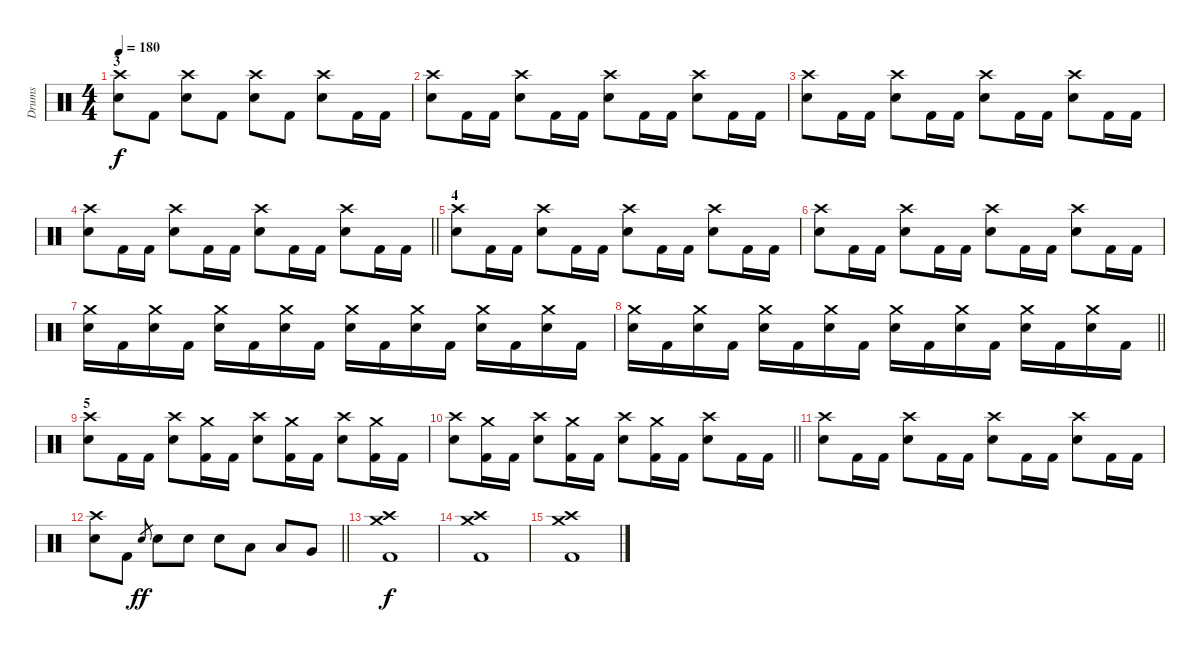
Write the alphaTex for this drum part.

\track ("Drums" "Drums") {instrument percussion}
\staff {score}
\articulation defaults
\ts (4 4)
\section ("" "3")
\tempo 180
\clef neutral
\ks c
("Crash high (hit)" "Electric Snare (hit)").8{dy f} "Kick (hit) 2".8 ("Crash high (hit)" "Electric Snare (hit)").8 "Kick (hit) 2".8 ("Crash high (hit)" "Electric Snare (hit)").8 "Kick (hit) 2".8 ("Crash high (hit)" "Electric Snare (hit)").8 "Kick (hit) 2".16 "Kick (hit) 2".16 |
("Crash high (hit)" "Electric Snare (hit)").8 "Kick (hit) 2".16 "Kick (hit) 2".16 ("Crash high (hit)" "Electric Snare (hit)").8 "Kick (hit) 2".16 "Kick (hit) 2".16 ("Crash high (hit)" "Electric Snare (hit)").8 "Kick (hit) 2".16 "Kick (hit) 2".16 ("Crash high (hit)" "Electric Snare (hit)").8 "Kick (hit) 2".16 "Kick (hit) 2".16 |
("Crash high (hit)" "Electric Snare (hit)").8 "Kick (hit) 2".16 "Kick (hit) 2".16 ("Crash high (hit)" "Electric Snare (hit)").8 "Kick (hit) 2".16 "Kick (hit) 2".16 ("Crash high (hit)" "Electric Snare (hit)").8 "Kick (hit) 2".16 "Kick (hit) 2".16 ("Crash high (hit)" "Electric Snare (hit)").8 "Kick (hit) 2".16 "Kick (hit) 2".16 |
\barLineRight lightlight
("Crash high (hit)" "Electric Snare (hit)").8 "Kick (hit) 2".16 "Kick (hit) 2".16 ("Crash high (hit)" "Electric Snare (hit)").8 "Kick (hit) 2".16 "Kick (hit) 2".16 ("Crash high (hit)" "Electric Snare (hit)").8 "Kick (hit) 2".16 "Kick (hit) 2".16 ("Crash high (hit)" "Electric Snare (hit)").8 "Kick (hit) 2".16 "Kick (hit) 2".16 |
\section ("" "4")
("Crash high (hit)" "Electric Snare (hit)").8 "Kick (hit) 2".16 "Kick (hit) 2".16 ("Crash high (hit)" "Electric Snare (hit)").8 "Kick (hit) 2".16 "Kick (hit) 2".16 ("Crash high (hit)" "Electric Snare (hit)").8 "Kick (hit) 2".16 "Kick (hit) 2".16 ("Crash high (hit)" "Electric Snare (hit)").8 "Kick (hit) 2".16 "Kick (hit) 2".16 |
("Crash high (hit)" "Electric Snare (hit)").8 "Kick (hit) 2".16 "Kick (hit) 2".16 ("Crash high (hit)" "Electric Snare (hit)").8 "Kick (hit) 2".16 "Kick (hit) 2".16 ("Crash high (hit)" "Electric Snare (hit)").8 "Kick (hit) 2".16 "Kick (hit) 2".16 ("Crash high (hit)" "Electric Snare (hit)").8 "Kick (hit) 2".16 "Kick (hit) 2".16 |
("Crash medium (hit)" "Electric Snare (hit)").16 "Kick (hit) 2".16 ("Crash medium (hit)" "Electric Snare (hit)").16 "Kick (hit) 2".16 ("Crash medium (hit)" "Electric Snare (hit)").16 "Kick (hit) 2".16 ("Crash medium (hit)" "Electric Snare (hit)").16 "Kick (hit) 2".16 ("Crash medium (hit)" "Electric Snare (hit)").16 "Kick (hit) 2".16 ("Crash medium (hit)" "Electric Snare (hit)").16 "Kick (hit) 2".16 ("Crash medium (hit)" "Electric Snare (hit)").16 "Kick (hit) 2".16 ("Crash medium (hit)" "Electric Snare (hit)").16 "Kick (hit) 2".16 |
\barLineRight lightlight
("Crash medium (hit)" "Electric Snare (hit)").16 "Kick (hit) 2".16 ("Crash medium (hit)" "Electric Snare (hit)").16 "Kick (hit) 2".16 ("Crash medium (hit)" "Electric Snare (hit)").16 "Kick (hit) 2".16 ("Crash medium (hit)" "Electric Snare (hit)").16 "Kick (hit) 2".16 ("Crash medium (hit)" "Electric Snare (hit)").16 "Kick (hit) 2".16 ("Crash medium (hit)" "Electric Snare (hit)").16 "Kick (hit) 2".16 ("Crash medium (hit)" "Electric Snare (hit)").16 "Kick (hit) 2".16 ("Crash medium (hit)" "Electric Snare (hit)").16 "Kick (hit) 2".16 |
\section ("" "5")
("Crash high (hit)" "Electric Snare (hit)").8 "Kick (hit) 2".16 "Kick (hit) 2".16 ("Crash high (hit)" "Electric Snare (hit)").8 ("Crash medium (hit)" "Kick (hit) 2").16 "Kick (hit) 2".16 ("Crash high (hit)" "Electric Snare (hit)").8 ("Crash medium (hit)" "Kick (hit) 2").16 "Kick (hit) 2".16 ("Crash high (hit)" "Electric Snare (hit)").8 ("Crash medium (hit)" "Kick (hit) 2").16 "Kick (hit) 2".16 |
\barLineRight lightlight
("Crash high (hit)" "Electric Snare (hit)").8 ("Crash medium (hit)" "Kick (hit) 2").16 "Kick (hit) 2".16 ("Crash high (hit)" "Electric Snare (hit)").8 ("Crash medium (hit)" "Kick (hit) 2").16 "Kick (hit) 2".16 ("Crash high (hit)" "Electric Snare (hit)").8 ("Crash medium (hit)" "Kick (hit) 2").16 "Kick (hit) 2".16 ("Crash high (hit)" "Electric Snare (hit)").8 "Kick (hit) 2".16 "Kick (hit) 2".16 |
("Crash high (hit)" "Electric Snare (hit)").8 "Kick (hit) 2".16 "Kick (hit) 2".16 ("Crash high (hit)" "Electric Snare (hit)").8 "Kick (hit) 2".16 "Kick (hit) 2".16 ("Crash high (hit)" "Electric Snare (hit)").8 "Kick (hit) 2".16 "Kick (hit) 2".16 ("Crash high (hit)" "Electric Snare (hit)").8 "Kick (hit) 2".16 "Kick (hit) 2".16 |
\barLineRight lightlight
("Crash high (hit)" "Electric Snare (hit)").8 "Kick (hit) 2".8 "Electric Snare (hit)".8{gr dy ff} "Electric Snare (hit)".8 "Electric Snare (hit)".8 "Electric Snare (hit)".8 "Low Tom (hit)".8 "Low Tom (hit)".8 "Very Low Tom (hit)".8 |
("Crash medium (hit)" "Crash high (hit)" "Kick (hit) 2").1{dy f} |
("Crash medium (hit)" "Crash high (hit)" "Kick (hit) 2").1 |
("Crash medium (hit)" "Crash high (hit)" "Kick (hit) 2").1
